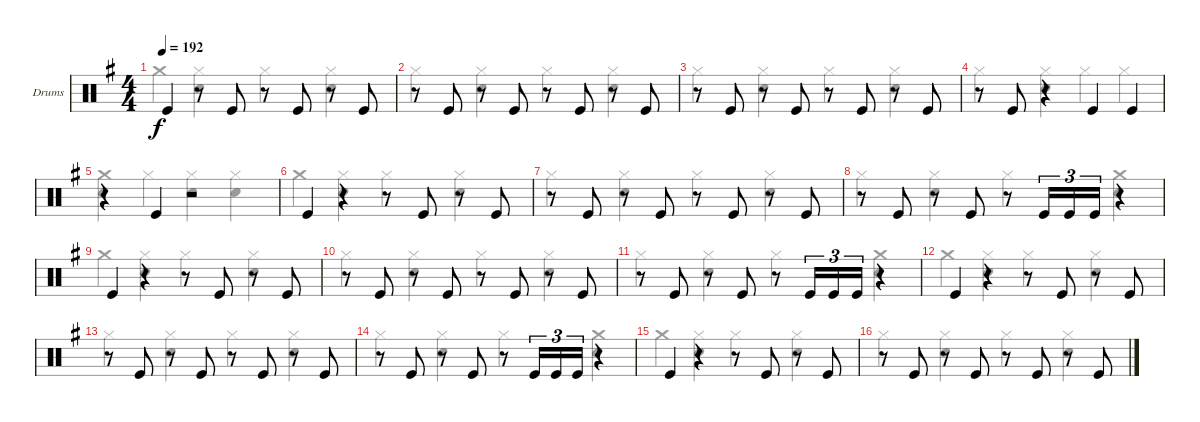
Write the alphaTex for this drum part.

\bracketExtendMode groupsimilarinstruments
\firstSystemTrackNameOrientation horizontal
\otherSystemsTrackNameOrientation horizontal
\track ("Drumkit" "Drums") {instrument percussion}
\staff {score}
\articulation defaults
\voice
\ts (4 4)
\tempo 192
\clef neutral
\scale
1.04288
\ks g "Kick (hit)".4{dy f}
r.8 "Kick (hit)".8 r.8 "Kick (hit)".8 r.8 "Kick (hit)".8 |
\scale
0.957125 r.8 "Kick (hit)".8 r.8 "Kick (hit)".8 r.8 "Kick (hit)".8 r.8 "Kick (hit)".8 |
\scale
1.04288 r.8 "Kick (hit)".8 r.8 "Kick (hit)".8 r.8 "Kick (hit)".8 r.8 "Kick (hit)".8 |
\scale
0.957125 r.8 "Kick (hit)".8 r.4 "Kick (hit)".4 "Kick (hit)".4 |
\scale
1.04288 r.4 "Kick (hit)".4 r.2 |
\scale
0.957125 "Kick (hit)".4 r.4 r.8 "Kick (hit)".8 r.8 "Kick (hit)".8 |
\scale
1.04288 r.8 "Kick (hit)".8 r.8 "Kick (hit)".8 r.8 "Kick (hit)".8 r.8 "Kick (hit)".8 |
\scale
0.957125 r.8 "Kick (hit)".8 r.8 "Kick (hit)".8 r.8 "Kick (hit)".16{tu (3 2)} "Kick (hit)".16{tu (3 2)} "Kick (hit)".16{tu (3 2)} r.4 |
\scale
1.04288 "Kick (hit)".4 r.4 r.8 "Kick (hit)".8 r.8 "Kick (hit)".8 |
\scale
0.957125 r.8 "Kick (hit)".8 r.8 "Kick (hit)".8 r.8 "Kick (hit)".8 r.8 "Kick (hit)".8 |
\scale
1.04288 r.8 "Kick (hit)".8 r.8 "Kick (hit)".8 r.8 "Kick (hit)".16{tu (3 2)} "Kick (hit)".16{tu (3 2)} "Kick (hit)".16{tu (3 2)} r.4 |
\scale
0.957125 "Kick (hit)".4 r.4 r.8 "Kick (hit)".8 r.8 "Kick (hit)".8 |
\scale
1.04288 r.8 "Kick (hit)".8 r.8 "Kick (hit)".8 r.8 "Kick (hit)".8 r.8 "Kick (hit)".8 |
\scale
0.957125 r.8 "Kick (hit)".8 r.8 "Kick (hit)".8 r.8 "Kick (hit)".16{tu (3 2)} "Kick (hit)".16{tu (3 2)} "Kick (hit)".16{tu (3 2)} r.4 |
\scale
1.04288 "Kick (hit)".4 r.4 r.8 "Kick (hit)".8 r.8 "Kick (hit)".8 |
\scale
0.957125 r.8 "Kick (hit)".8 r.8 "Kick (hit)".8 r.8 "Kick (hit)".8 r.8 "Kick (hit)".8
\voice
\clef neutral
\ottava regular
\simile none
\scale
1.04288
\ks g "Crash medium (hit)".4{dy f}
("Hi-Hat (closed)" "Snare (hit) 2").4 "Hi-Hat (closed)".4 ("Hi-Hat (closed)" "Snare (hit) 2").4 |
\scale
0.957125 "Hi-Hat (closed)".4 ("Hi-Hat (closed)" "Snare (hit) 2").4 "Hi-Hat (closed)".4 ("Hi-Hat (closed)" "Snare (hit) 2").4 |
\scale
1.04288 "Hi-Hat (closed)".4 ("Hi-Hat (closed)" "Snare (hit) 2").4 "Hi-Hat (closed)".4 ("Hi-Hat (closed)" "Snare (hit) 2").4 |
\scale
0.957125 "Hi-Hat (closed)".4 ("Hi-Hat (closed)" "Snare (hit) 2").4 "Hi-Hat (closed)".4 "Hi-Hat (closed)".4 |
\scale
1.04288 ("Crash medium (hit)" "Snare (hit) 2").4 "Hi-Hat (closed)".4 ("Hi-Hat (closed)" "Snare (hit) 2").4 ("Hi-Hat (closed)" "Snare (hit) 2").4 |
\scale
0.957125 "Crash medium (hit)".4 ("Hi-Hat (closed)" "Snare (hit) 2").4 "Hi-Hat (closed)".4 ("Hi-Hat (closed)" "Snare (hit) 2").4 |
\scale
1.04288 "Hi-Hat (closed)".4 ("Hi-Hat (closed)" "Snare (hit) 2").4 "Hi-Hat (closed)".4 ("Hi-Hat (closed)" "Snare (hit) 2").4 |
\scale
0.957125 "Hi-Hat (closed)".4 ("Hi-Hat (closed)" "Snare (hit) 2").4 "Hi-Hat (closed)".4 ("Crash medium (hit)" "Snare (hit) 2").4 |
\scale
1.04288 "Crash medium (hit)".4 ("Hi-Hat (closed)" "Snare (hit) 2").4 "Hi-Hat (closed)".4 ("Hi-Hat (closed)" "Snare (hit) 2").4 |
\scale
0.957125 "Hi-Hat (closed)".4 ("Hi-Hat (closed)" "Snare (hit) 2").4 "Hi-Hat (closed)".4 ("Hi-Hat (closed)" "Snare (hit) 2").4 |
\scale
1.04288 "Hi-Hat (closed)".4 ("Hi-Hat (closed)" "Snare (hit) 2").4 "Hi-Hat (closed)".4 ("Crash medium (hit)" "Snare (hit) 2").4 |
\scale
0.957125 "Crash medium (hit)".4 ("Hi-Hat (closed)" "Snare (hit) 2").4 "Hi-Hat (closed)".4 ("Hi-Hat (closed)" "Snare (hit) 2").4 |
\scale
1.04288 "Hi-Hat (closed)".4 ("Hi-Hat (closed)" "Snare (hit) 2").4 "Hi-Hat (closed)".4 ("Hi-Hat (closed)" "Snare (hit) 2").4 |
\scale
0.957125 "Hi-Hat (closed)".4 ("Hi-Hat (closed)" "Snare (hit) 2").4 "Hi-Hat (closed)".4 ("Crash medium (hit)" "Snare (hit) 2").4 |
\scale
1.04288 "Crash medium (hit)".4 ("Hi-Hat (closed)" "Snare (hit) 2").4 "Hi-Hat (closed)".4 ("Hi-Hat (closed)" "Snare (hit) 2").4 |
\scale
0.957125 "Hi-Hat (closed)".4 ("Hi-Hat (closed)" "Snare (hit) 2").4 "Hi-Hat (closed)".4 ("Hi-Hat (closed)" "Snare (hit) 2").4
